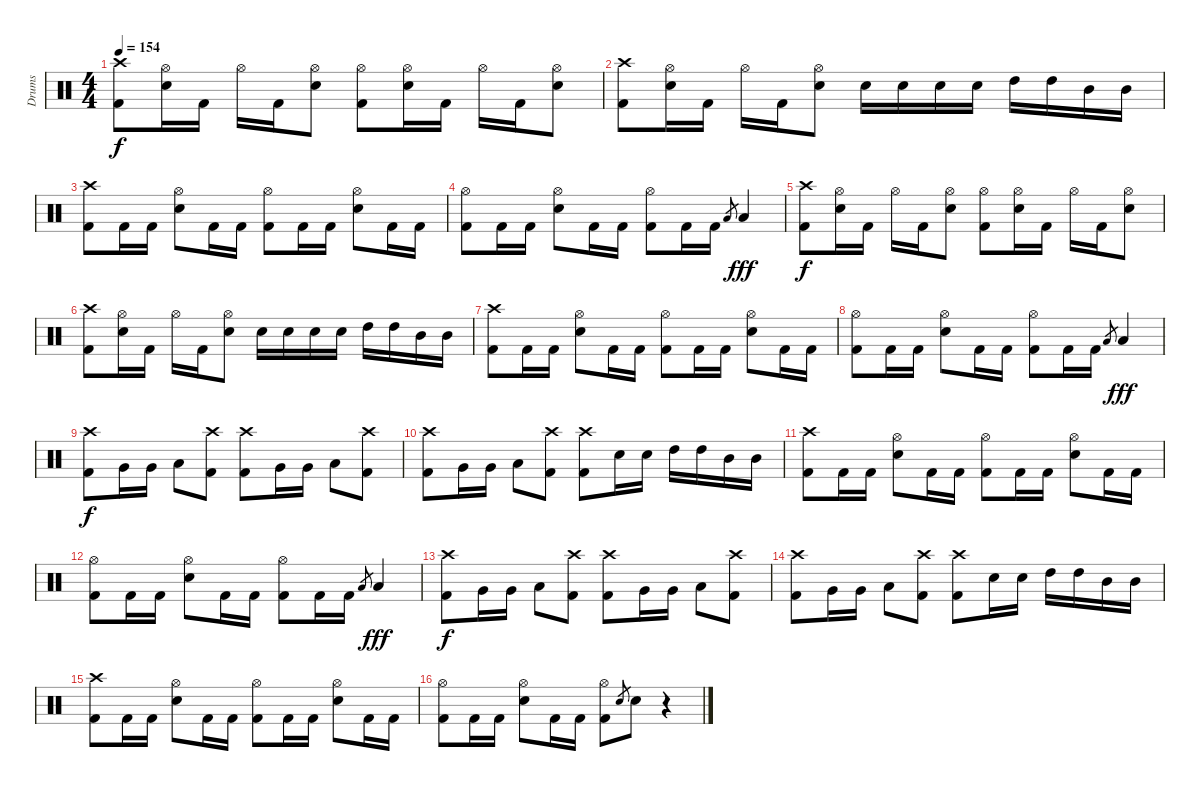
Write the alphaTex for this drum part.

\track ("Drums" "Drums") {instrument percussion}
\staff {score}
\articulation defaults
\ts (4 4)
\tempo 154
\clef neutral
\ks c
("Crash high (hit)" "Kick (hit) 2").8{dy f} ("Hi-Hat (open)" "Snare (hit) 2").16 "Kick (hit) 2".16 "Hi-Hat (open)".16 "Kick (hit) 2".16 ("Hi-Hat (open)" "Snare (hit) 2").8 ("Hi-Hat (open)" "Kick (hit) 2").8 ("Hi-Hat (open)" "Snare (hit) 2").16 "Kick (hit) 2".16 "Hi-Hat (open)".16 "Kick (hit) 2".16 ("Hi-Hat (open)" "Snare (hit) 2").8 |
("Crash high (hit)" "Kick (hit) 2").8 ("Hi-Hat (open)" "Snare (hit) 2").16 "Kick (hit) 2".16 "Hi-Hat (open)".16 "Kick (hit) 2".16 ("Hi-Hat (open)" "Snare (hit) 2").8 "Snare (hit) 2".16 "Snare (hit) 2".16 "Snare (hit) 2".16 "Snare (hit) 2".16 "High Tom (hit)".16 "High Tom (hit)".16 "Mid Tom (hit)".16 "Mid Tom (hit)".16 |
("Crash high (hit)" "Kick (hit) 2").8 "Kick (hit) 2".16 "Kick (hit) 2".16 ("Hi-Hat (open)" "Snare (hit) 2").8 "Kick (hit) 2".16 "Kick (hit) 2".16 ("Hi-Hat (open)" "Kick (hit) 2").8 "Kick (hit) 2".16 "Kick (hit) 2".16 ("Hi-Hat (open)" "Snare (hit) 2").8 "Kick (hit) 2".16 "Kick (hit) 2".16 |
("Hi-Hat (open)" "Kick (hit) 2").8 "Kick (hit) 2".16 "Kick (hit) 2".16 ("Hi-Hat (open)" "Snare (hit) 2").8 "Kick (hit) 2".16 "Kick (hit) 2".16 ("Hi-Hat (open)" "Kick (hit) 2").8 "Kick (hit) 2".16 "Kick (hit) 2".16 "Low Tom (hit)".8{gr} "Low Tom (hit)".4{dy fff} |
("Crash high (hit)" "Kick (hit) 2").8{dy f} ("Hi-Hat (open)" "Snare (hit) 2").16 "Kick (hit) 2".16 "Hi-Hat (open)".16 "Kick (hit) 2".16 ("Hi-Hat (open)" "Snare (hit) 2").8 ("Hi-Hat (open)" "Kick (hit) 2").8 ("Hi-Hat (open)" "Snare (hit) 2").16 "Kick (hit) 2".16 "Hi-Hat (open)".16 "Kick (hit) 2".16 ("Hi-Hat (open)" "Snare (hit) 2").8 |
("Crash high (hit)" "Kick (hit) 2").8 ("Hi-Hat (open)" "Snare (hit) 2").16 "Kick (hit) 2".16 "Hi-Hat (open)".16 "Kick (hit) 2".16 ("Hi-Hat (open)" "Snare (hit) 2").8 "Snare (hit) 2".16 "Snare (hit) 2".16 "Snare (hit) 2".16 "Snare (hit) 2".16 "High Tom (hit)".16 "High Tom (hit)".16 "Mid Tom (hit)".16 "Mid Tom (hit)".16 |
("Crash high (hit)" "Kick (hit) 2").8 "Kick (hit) 2".16 "Kick (hit) 2".16 ("Hi-Hat (open)" "Snare (hit) 2").8 "Kick (hit) 2".16 "Kick (hit) 2".16 ("Hi-Hat (open)" "Kick (hit) 2").8 "Kick (hit) 2".16 "Kick (hit) 2".16 ("Hi-Hat (open)" "Snare (hit) 2").8 "Kick (hit) 2".16 "Kick (hit) 2".16 |
("Hi-Hat (open)" "Kick (hit) 2").8 "Kick (hit) 2".16 "Kick (hit) 2".16 ("Hi-Hat (open)" "Snare (hit) 2").8 "Kick (hit) 2".16 "Kick (hit) 2".16 ("Hi-Hat (open)" "Kick (hit) 2").8 "Kick (hit) 2".16 "Kick (hit) 2".16 "Low Tom (hit)".8{gr} "Low Tom (hit)".4{dy fff} |
("Crash high (hit)" "Kick (hit) 2").8{dy f} "Very Low Tom (hit)".16 "Very Low Tom (hit)".16 "Low Floor Tom (hit)".8 ("Crash high (hit)" "Kick (hit) 2").8 ("Crash high (hit)" "Kick (hit) 2").8 "Very Low Tom (hit)".16 "Very Low Tom (hit)".16 "Low Floor Tom (hit)".8 ("Crash high (hit)" "Kick (hit) 2").8 |
("Crash high (hit)" "Kick (hit) 2").8 "Very Low Tom (hit)".16 "Very Low Tom (hit)".16 "Low Floor Tom (hit)".8 ("Crash high (hit)" "Kick (hit) 2").8 ("Crash high (hit)" "Kick (hit) 2").8 "Snare (hit) 2".16 "Snare (hit) 2".16 "High Tom (hit)".16 "High Tom (hit)".16 "Mid Tom (hit)".16 "Mid Tom (hit)".16 |
("Crash high (hit)" "Kick (hit) 2").8 "Kick (hit) 2".16 "Kick (hit) 2".16 ("Hi-Hat (open)" "Snare (hit) 2").8 "Kick (hit) 2".16 "Kick (hit) 2".16 ("Hi-Hat (open)" "Kick (hit) 2").8 "Kick (hit) 2".16 "Kick (hit) 2".16 ("Hi-Hat (open)" "Snare (hit) 2").8 "Kick (hit) 2".16 "Kick (hit) 2".16 |
("Hi-Hat (open)" "Kick (hit) 2").8 "Kick (hit) 2".16 "Kick (hit) 2".16 ("Hi-Hat (open)" "Snare (hit) 2").8 "Kick (hit) 2".16 "Kick (hit) 2".16 ("Hi-Hat (open)" "Kick (hit) 2").8 "Kick (hit) 2".16 "Kick (hit) 2".16 "Low Tom (hit)".8{gr} "Low Tom (hit)".4{dy fff} |
("Crash high (hit)" "Kick (hit) 2").8{dy f} "Very Low Tom (hit)".16 "Very Low Tom (hit)".16 "Low Floor Tom (hit)".8 ("Crash high (hit)" "Kick (hit) 2").8 ("Crash high (hit)" "Kick (hit) 2").8 "Very Low Tom (hit)".16 "Very Low Tom (hit)".16 "Low Floor Tom (hit)".8 ("Crash high (hit)" "Kick (hit) 2").8 |
("Crash high (hit)" "Kick (hit) 2").8 "Very Low Tom (hit)".16 "Very Low Tom (hit)".16 "Low Floor Tom (hit)".8 ("Crash high (hit)" "Kick (hit) 2").8 ("Crash high (hit)" "Kick (hit) 2").8 "Snare (hit) 2".16 "Snare (hit) 2".16 "High Tom (hit)".16 "High Tom (hit)".16 "Mid Tom (hit)".16 "Mid Tom (hit)".16 |
("Crash high (hit)" "Kick (hit) 2").8 "Kick (hit) 2".16 "Kick (hit) 2".16 ("Hi-Hat (open)" "Snare (hit) 2").8 "Kick (hit) 2".16 "Kick (hit) 2".16 ("Hi-Hat (open)" "Kick (hit) 2").8 "Kick (hit) 2".16 "Kick (hit) 2".16 ("Hi-Hat (open)" "Snare (hit) 2").8 "Kick (hit) 2".16 "Kick (hit) 2".16 |
("Hi-Hat (open)" "Kick (hit) 2").8 "Kick (hit) 2".16 "Kick (hit) 2".16 ("Hi-Hat (open)" "Snare (hit) 2").8 "Kick (hit) 2".16 "Kick (hit) 2".16 ("Hi-Hat (open)" "Kick (hit) 2").8 "Snare (hit) 2".8{gr} "Snare (hit) 2".8 r.4
